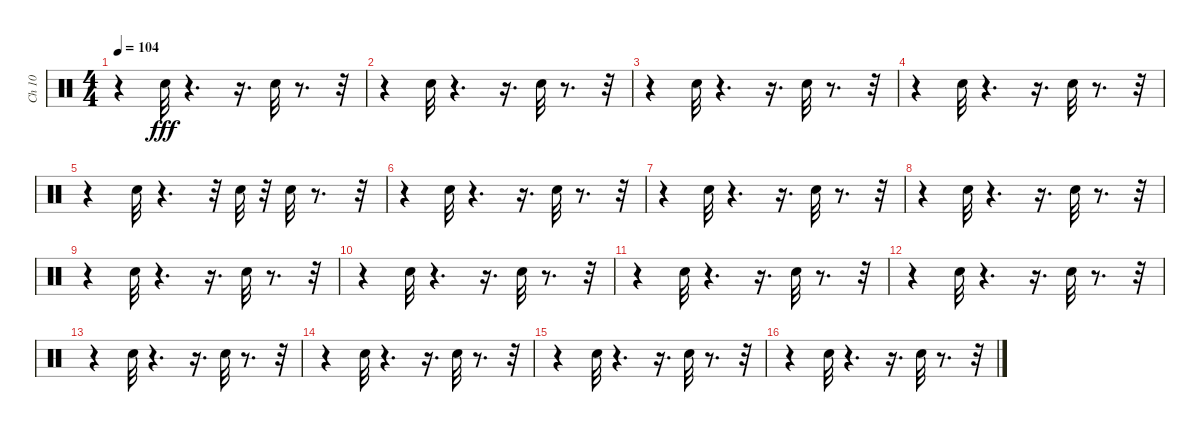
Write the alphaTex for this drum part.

\track ("Ch 10   " "Ch 10   ") {instrument percussion}
\staff {score}
\articulation defaults
\ts (4 4)
\tempo 104
\clef neutral
\ks c
r.4{dy fff} "Snare (hit) 2".32 r.4{d} r.16{d} "Snare (hit) 2".32 r.8{d} r.32 |
r.4 "Snare (hit) 2".32 r.4{d} r.16{d} "Snare (hit) 2".32 r.8{d} r.32 |
r.4 "Snare (hit) 2".32 r.4{d} r.16{d} "Snare (hit) 2".32 r.8{d} r.32 |
r.4 "Snare (hit) 2".32 r.4{d} r.16{d} "Snare (hit) 2".32 r.8{d} r.32 |
r.4 "Snare (hit) 2".32 r.4{d} r.32 "Snare (hit) 2".32 r.32 "Snare (hit) 2".32 r.8{d} r.32 |
r.4 "Snare (hit) 2".32 r.4{d} r.16{d} "Snare (hit) 2".32 r.8{d} r.32 |
r.4 "Snare (hit) 2".32 r.4{d} r.16{d} "Snare (hit) 2".32 r.8{d} r.32 |
r.4 "Snare (hit) 2".32 r.4{d} r.16{d} "Snare (hit) 2".32 r.8{d} r.32 |
r.4 "Snare (hit) 2".32 r.4{d} r.16{d} "Snare (hit) 2".32 r.8{d} r.32 |
r.4 "Snare (hit) 2".32 r.4{d} r.16{d} "Snare (hit) 2".32 r.8{d} r.32 |
r.4 "Snare (hit) 2".32 r.4{d} r.16{d} "Snare (hit) 2".32 r.8{d} r.32 |
r.4 "Snare (hit) 2".32 r.4{d} r.16{d} "Snare (hit) 2".32 r.8{d} r.32 |
r.4 "Snare (hit) 2".32 r.4{d} r.16{d} "Snare (hit) 2".32 r.8{d} r.32 |
r.4 "Snare (hit) 2".32 r.4{d} r.16{d} "Snare (hit) 2".32 r.8{d} r.32 |
r.4 "Snare (hit) 2".32 r.4{d} r.16{d} "Snare (hit) 2".32 r.8{d} r.32 |
r.4 "Snare (hit) 2".32 r.4{d} r.16{d} "Snare (hit) 2".32 r.8{d} r.32
